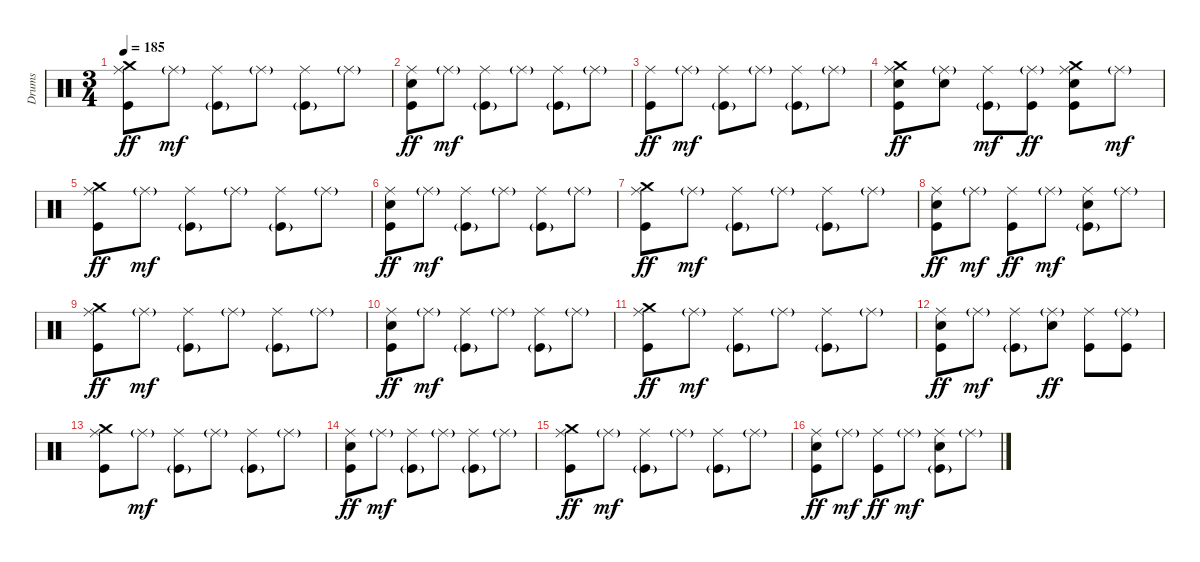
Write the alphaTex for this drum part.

\track ("Drums" "Drums") {instrument percussion}
\staff {score}
\articulation defaults
\ts (3 4)
\tempo 185
\clef neutral
\ks c
("Crash medium (hit)" "Ride (middle)" "Kick (hit)").8{dy ff} "Ride (middle)"{g}.8{dy mf} ("Ride (middle)" "Kick (hit)"{g}).8 "Ride (middle)"{g}.8 ("Ride (middle)" "Kick (hit)"{g}).8 "Ride (middle)"{g}.8 |
("Ride (middle)" "Snare (hit) 2" "Kick (hit)").8{dy ff} "Ride (middle)"{g}.8{dy mf} ("Ride (middle)" "Kick (hit)"{g}).8 "Ride (middle)"{g}.8 ("Ride (middle)" "Kick (hit)"{g}).8 "Ride (middle)"{g}.8 |
("Ride (middle)" "Kick (hit)").8{dy ff} "Ride (middle)"{g}.8{dy mf} ("Ride (middle)" "Kick (hit)"{g}).8 "Ride (middle)"{g}.8 ("Ride (middle)" "Kick (hit)"{g}).8 "Ride (middle)"{g}.8 |
("Crash medium (hit)" "Ride (middle)" "Snare (hit) 2" "Kick (hit)").8{dy ff} ("Ride (middle)"{g} "Snare (hit) 2").8 ("Ride (middle)" "Kick (hit)"{g}).8{dy mf} ("Ride (middle)"{g} "Kick (hit)").8{dy ff} ("Crash medium (hit)" "Ride (middle)" "Snare (hit) 2" "Kick (hit)").8 "Ride (middle)"{g}.8{dy mf} |
("Crash medium (hit)" "Ride (middle)" "Kick (hit)").8{dy ff} "Ride (middle)"{g}.8{dy mf} ("Ride (middle)" "Kick (hit)"{g}).8 "Ride (middle)"{g}.8 ("Ride (middle)" "Kick (hit)"{g}).8 "Ride (middle)"{g}.8 |
("Ride (middle)" "Snare (hit) 2" "Kick (hit)").8{dy ff} "Ride (middle)"{g}.8{dy mf} ("Ride (middle)" "Kick (hit)"{g}).8 "Ride (middle)"{g}.8 ("Ride (middle)" "Kick (hit)"{g}).8 "Ride (middle)"{g}.8 |
("Crash medium (hit)" "Ride (middle)" "Kick (hit)").8{dy ff} "Ride (middle)"{g}.8{dy mf} ("Ride (middle)" "Kick (hit)"{g}).8 "Ride (middle)"{g}.8 ("Ride (middle)" "Kick (hit)"{g}).8 "Ride (middle)"{g}.8 |
("Ride (middle)" "Snare (hit) 2" "Kick (hit)").8{dy ff} "Ride (middle)"{g}.8{dy mf} ("Ride (middle)" "Kick (hit)").8{dy ff} "Ride (middle)"{g}.8{dy mf} ("Ride (middle)" "Snare (hit) 2" "Kick (hit)"{g}).8 "Ride (middle)"{g}.8 |
("Crash medium (hit)" "Ride (middle)" "Kick (hit)").8{dy ff} "Ride (middle)"{g}.8{dy mf} ("Ride (middle)" "Kick (hit)"{g}).8 "Ride (middle)"{g}.8 ("Ride (middle)" "Kick (hit)"{g}).8 "Ride (middle)"{g}.8 |
("Ride (middle)" "Snare (hit) 2" "Kick (hit)").8{dy ff} "Ride (middle)"{g}.8{dy mf} ("Ride (middle)" "Kick (hit)"{g}).8 "Ride (middle)"{g}.8 ("Ride (middle)" "Kick (hit)"{g}).8 "Ride (middle)"{g}.8 |
("Crash medium (hit)" "Ride (middle)" "Kick (hit)").8{dy ff} "Ride (middle)"{g}.8{dy mf} ("Ride (middle)" "Kick (hit)"{g}).8 "Ride (middle)"{g}.8 ("Ride (middle)" "Kick (hit)"{g}).8 "Ride (middle)"{g}.8 |
("Ride (middle)" "Snare (hit) 2" "Kick (hit)").8{dy ff} "Ride (middle)"{g}.8{dy mf} ("Ride (middle)" "Kick (hit)"{g}).8 ("Ride (middle)"{g} "Snare (hit) 2").8{dy ff} ("Ride (middle)" "Kick (hit)").8 ("Ride (middle)"{g} "Kick (hit)").8 |
("Crash medium (hit)" "Ride (middle)" "Kick (hit)").8 "Ride (middle)"{g}.8{dy mf} ("Ride (middle)" "Kick (hit)"{g}).8 "Ride (middle)"{g}.8 ("Ride (middle)" "Kick (hit)"{g}).8 "Ride (middle)"{g}.8 |
("Ride (middle)" "Snare (hit) 2" "Kick (hit)").8{dy ff} "Ride (middle)"{g}.8{dy mf} ("Ride (middle)" "Kick (hit)"{g}).8 "Ride (middle)"{g}.8 ("Ride (middle)" "Kick (hit)"{g}).8 "Ride (middle)"{g}.8 |
("Crash medium (hit)" "Ride (middle)" "Kick (hit)").8{dy ff} "Ride (middle)"{g}.8{dy mf} ("Ride (middle)" "Kick (hit)"{g}).8 "Ride (middle)"{g}.8 ("Ride (middle)" "Kick (hit)"{g}).8 "Ride (middle)"{g}.8 |
("Ride (middle)" "Snare (hit) 2" "Kick (hit)").8{dy ff} "Ride (middle)"{g}.8{dy mf} ("Ride (middle)" "Kick (hit)").8{dy ff} "Ride (middle)"{g}.8{dy mf} ("Ride (middle)" "Snare (hit) 2" "Kick (hit)"{g}).8 "Ride (middle)"{g}.8
